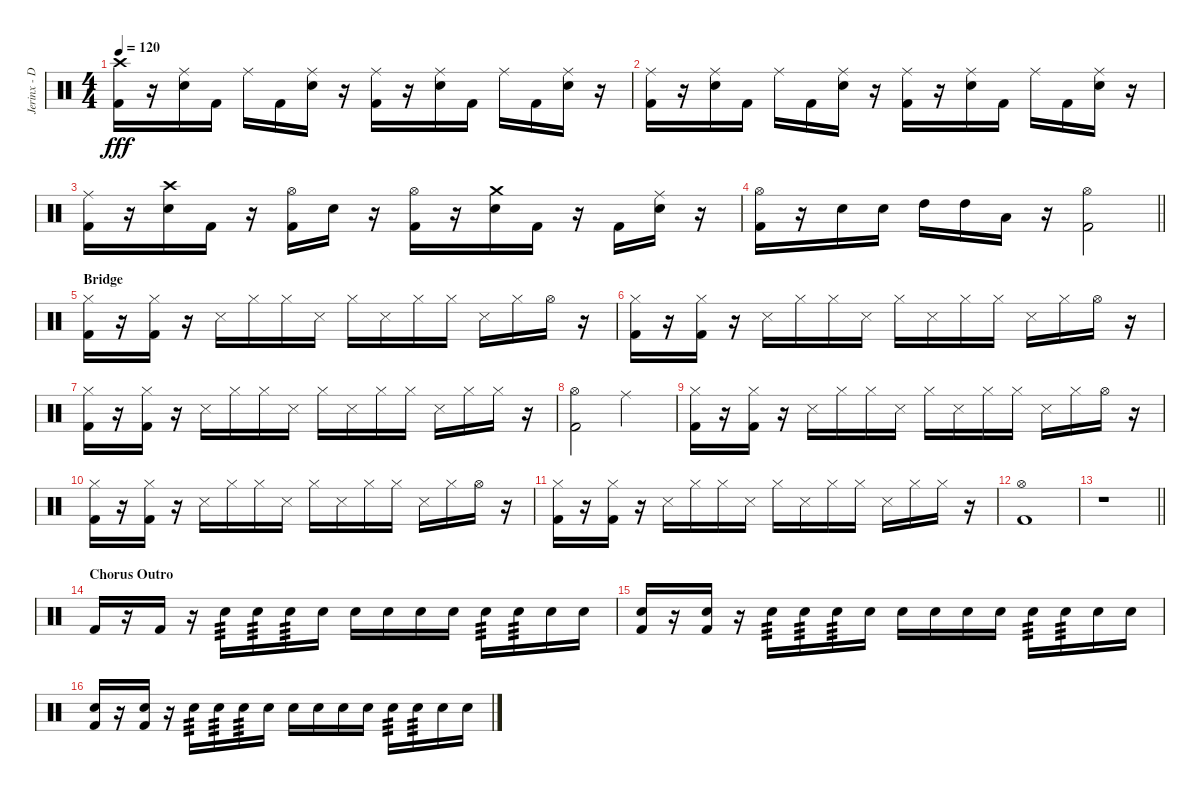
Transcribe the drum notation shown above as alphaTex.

\track ("Jerinx - Drum" "Jerinx - D") {instrument percussion}
\staff {score}
\articulation defaults
\ts (4 4)
\tempo 120
\clef neutral
\ks c
("Kick (hit) 2" "Crash high (hit)").16{dy fff} r.16 ("Snare (hit) 2" "Ride (middle)").16 "Kick (hit) 2".16 "Ride (middle)".16 "Kick (hit) 2".16 ("Snare (hit) 2" "Ride (middle)").16 r.16 ("Kick (hit) 2" "Ride (middle)").16 r.16 ("Snare (hit) 2" "Ride (middle)").16 "Kick (hit) 2".16 "Ride (middle)".16 "Kick (hit) 2".16 ("Snare (hit) 2" "Ride (middle)").16 r.16 |
("Kick (hit) 2" "Ride (middle)").16 r.16 ("Snare (hit) 2" "Ride (middle)").16 "Kick (hit) 2".16 "Ride (middle)".16 "Kick (hit) 2".16 ("Snare (hit) 2" "Ride (middle)").16 r.16 ("Kick (hit) 2" "Ride (middle)").16 r.16 ("Snare (hit) 2" "Ride (middle)").16 "Kick (hit) 2".16 "Ride (middle)".16 "Kick (hit) 2".16 ("Snare (hit) 2" "Ride (middle)").16 r.16 |
("Kick (hit) 2" "Ride (middle)").16 r.16 ("Snare (hit) 2" "Crash high (hit)").16 "Kick (hit) 2".16 r.16 ("Hi-Hat (open)" "Kick (hit) 2").16 "Snare (hit) 2".16 r.16 ("Hi-Hat (open)" "Kick (hit) 2").16 r.16 ("Snare (hit) 2" "Crash medium (hit)").16 "Kick (hit) 2".16 r.16 "Kick (hit) 2".16 ("Snare (hit) 2" "Ride (middle)").16 r.16 |
\barLineRight lightlight
("Hi-Hat (open)" "Kick (hit) 2").16 r.16 "Snare (hit) 2".16 "Snare (hit) 2".16 "High Tom (hit)".16 "High Tom (hit)".16 "Low Tom (hit)".16 r.16 ("Hi-Hat (open)" "Kick (hit) 2").2 |
\section ("" "Bridge")
("Hi-Hat (closed)" "Kick (hit) 2").16 r.16 ("Hi-Hat (closed)" "Kick (hit) 2").16 r.16 "Snare (side stick) 3".16 "Hi-Hat (closed)".16 "Hi-Hat (closed)".16 "Snare (side stick) 3".16 "Hi-Hat (closed)".16 "Snare (side stick) 3".16 "Hi-Hat (closed)".16 "Hi-Hat (closed)".16 "Snare (side stick) 3".16 "Hi-Hat (closed)".16 "Hi-Hat (open)".16 r.16 |
("Hi-Hat (closed)" "Kick (hit) 2").16 r.16 ("Hi-Hat (closed)" "Kick (hit) 2").16 r.16 "Snare (side stick) 3".16 "Hi-Hat (closed)".16 "Hi-Hat (closed)".16 "Snare (side stick) 3".16 "Hi-Hat (closed)".16 "Snare (side stick) 3".16 "Hi-Hat (closed)".16 "Hi-Hat (closed)".16 "Snare (side stick) 3".16 "Hi-Hat (closed)".16 "Hi-Hat (open)".16 r.16 |
("Hi-Hat (closed)" "Kick (hit) 2").16 r.16 ("Hi-Hat (closed)" "Kick (hit) 2").16 r.16 "Snare (side stick) 3".16 "Hi-Hat (closed)".16 "Hi-Hat (closed)".16 "Snare (side stick) 3".16 "Hi-Hat (closed)".16 "Snare (side stick) 3".16 "Hi-Hat (closed)".16 "Hi-Hat (closed)".16 "Snare (side stick) 3".16 "Hi-Hat (closed)".16 "Hi-Hat (closed)".16 r.16 |
("Hi-Hat (open)" "Kick (hit) 2").2 "Ride (middle)".2 |
("Hi-Hat (closed)" "Kick (hit) 2").16 r.16 ("Hi-Hat (closed)" "Kick (hit) 2").16 r.16 "Snare (side stick) 3".16 "Hi-Hat (closed)".16 "Hi-Hat (closed)".16 "Snare (side stick) 3".16 "Hi-Hat (closed)".16 "Snare (side stick) 3".16 "Hi-Hat (closed)".16 "Hi-Hat (closed)".16 "Snare (side stick) 3".16 "Hi-Hat (closed)".16 "Hi-Hat (open)".16 r.16 |
("Hi-Hat (closed)" "Kick (hit) 2").16 r.16 ("Hi-Hat (closed)" "Kick (hit) 2").16 r.16 "Snare (side stick) 3".16 "Hi-Hat (closed)".16 "Hi-Hat (closed)".16 "Snare (side stick) 3".16 "Hi-Hat (closed)".16 "Snare (side stick) 3".16 "Hi-Hat (closed)".16 "Hi-Hat (closed)".16 "Snare (side stick) 3".16 "Hi-Hat (closed)".16 "Hi-Hat (open)".16 r.16 |
("Hi-Hat (closed)" "Kick (hit) 2").16 r.16 ("Hi-Hat (closed)" "Kick (hit) 2").16 r.16 "Snare (side stick) 3".16 "Hi-Hat (closed)".16 "Hi-Hat (closed)".16 "Snare (side stick) 3".16 "Hi-Hat (closed)".16 "Snare (side stick) 3".16 "Hi-Hat (closed)".16 "Hi-Hat (closed)".16 "Snare (side stick) 3".16 "Hi-Hat (closed)".16 "Hi-Hat (closed)".16 r.16 |
("Hi-Hat (open)" "Kick (hit) 2").1 |
\barLineRight lightlight
r.1 |
\section ("" "Chorus Outro")
"Kick (hit) 2".16 r.16 "Kick (hit) 2".16 r.16 "Snare (hit) 2".16{tp 3} "Snare (hit) 2".16{tp 3} "Snare (hit) 2".16{tp 3} "Snare (hit) 2".16 "Snare (hit) 2".16 "Snare (hit) 2".16 "Snare (hit) 2".16 "Snare (hit) 2".16 "Snare (hit) 2".16{tp 3} "Snare (hit) 2".16{tp 3} "Snare (hit) 2".16 "Snare (hit) 2".16 |
("Snare (hit) 2" "Kick (hit) 2").16 r.16 ("Snare (hit) 2" "Kick (hit) 2").16 r.16 "Snare (hit) 2".16{tp 3} "Snare (hit) 2".16{tp 3} "Snare (hit) 2".16{tp 3} "Snare (hit) 2".16 "Snare (hit) 2".16 "Snare (hit) 2".16 "Snare (hit) 2".16 "Snare (hit) 2".16 "Snare (hit) 2".16{tp 3} "Snare (hit) 2".16{tp 3} "Snare (hit) 2".16 "Snare (hit) 2".16 |
("Snare (hit) 2" "Kick (hit) 2").16 r.16 ("Snare (hit) 2" "Kick (hit) 2").16 r.16 "Snare (hit) 2".16{tp 3} "Snare (hit) 2".16{tp 3} "Snare (hit) 2".16{tp 3} "Snare (hit) 2".16 "Snare (hit) 2".16 "Snare (hit) 2".16 "Snare (hit) 2".16 "Snare (hit) 2".16 "Snare (hit) 2".16{tp 3} "Snare (hit) 2".16{tp 3} "Snare (hit) 2".16 "Snare (hit) 2".16
